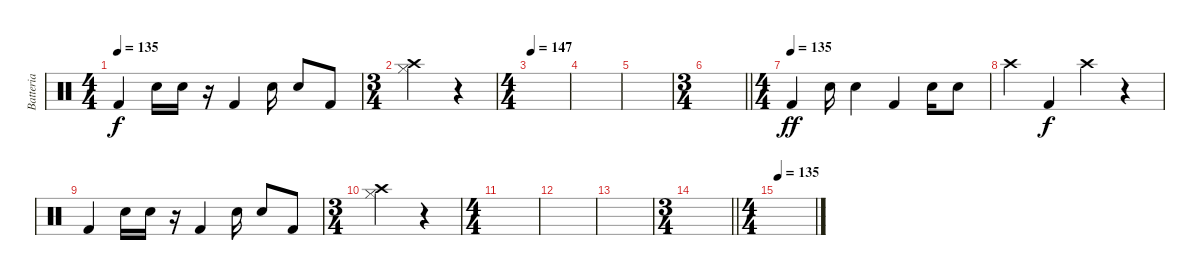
\track ("Batteria" "Batteria") {instrument percussion}
\staff {score}
\articulation defaults
\ts (4 4)
\tempo 135
\clef neutral
\ks c "Kick (hit) 2".4{dy f} "Electric Snare (hit)".16 "Electric Snare (hit)".16
r.16 "Kick (hit) 2".4 "Electric Snare (hit)".16 "Electric Snare (hit)".8 "Kick (hit) 2".8 |
\ts (3 4)
("Crash high (hit)" "Hi-Hat (closed)").2 r.4 |
\ts (4 4)
\tempo 147
|
|
|
\ts (3 4)
\barLineRight lightlight
|
\ts (4 4)
\tempo (135)
"Kick (hit) 2".4{dy ff} "Snare (hit) 2".16 "Snare (hit) 2".4 "Kick (hit) 2".4 "Snare (hit) 2".16 "Snare (hit) 2".8 |
"Crash high (hit)".4 "Kick (hit) 2".4{dy f} "Crash high (hit)".4 r.4 |
"Kick (hit) 2".4 "Electric Snare (hit)".16 "Electric Snare (hit)".16 r.16 "Kick (hit) 2".4 "Electric Snare (hit)".16 "Electric Snare (hit)".8 "Kick (hit) 2".8 |
\ts (3 4)
("Crash high (hit)" "Hi-Hat (closed)").2 r.4 |
\ts (4 4)
|
|
|
\ts (3 4)
\barLineRight lightlight
|
\ts (4 4)
\tempo 135
